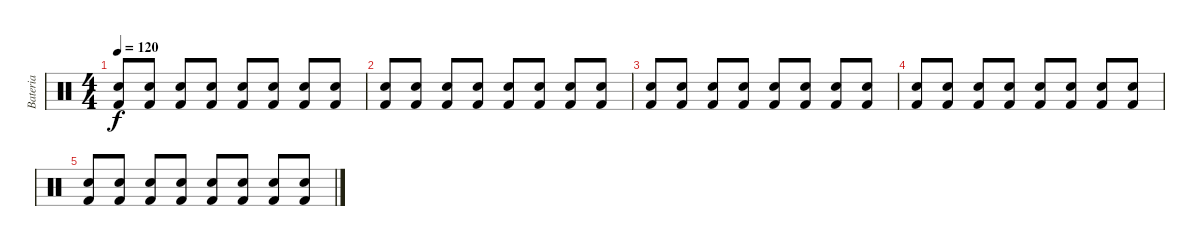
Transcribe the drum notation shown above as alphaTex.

\track ("Bateria" "Bateria") {instrument percussion}
\staff {score}
\articulation defaults
\ts (4 4)
\tempo 120
\clef neutral
\ks c
("Electric Snare (hit)" "Kick (hit) 2").8{dy f} ("Electric Snare (hit)" "Kick (hit) 2").8 ("Electric Snare (hit)" "Kick (hit) 2").8 ("Electric Snare (hit)" "Kick (hit) 2").8 ("Electric Snare (hit)" "Kick (hit) 2").8 ("Electric Snare (hit)" "Kick (hit) 2").8 ("Electric Snare (hit)" "Kick (hit) 2").8 ("Electric Snare (hit)" "Kick (hit) 2").8 |
("Electric Snare (hit)" "Kick (hit) 2").8 ("Electric Snare (hit)" "Kick (hit) 2").8 ("Electric Snare (hit)" "Kick (hit) 2").8 ("Electric Snare (hit)" "Kick (hit) 2").8 ("Electric Snare (hit)" "Kick (hit) 2").8 ("Electric Snare (hit)" "Kick (hit) 2").8 ("Electric Snare (hit)" "Kick (hit) 2").8 ("Electric Snare (hit)" "Kick (hit) 2").8 |
("Electric Snare (hit)" "Kick (hit) 2").8 ("Electric Snare (hit)" "Kick (hit) 2").8 ("Electric Snare (hit)" "Kick (hit) 2").8 ("Electric Snare (hit)" "Kick (hit) 2").8 ("Electric Snare (hit)" "Kick (hit) 2").8 ("Electric Snare (hit)" "Kick (hit) 2").8 ("Electric Snare (hit)" "Kick (hit) 2").8 ("Electric Snare (hit)" "Kick (hit) 2").8 |
("Electric Snare (hit)" "Kick (hit) 2").8 ("Electric Snare (hit)" "Kick (hit) 2").8 ("Electric Snare (hit)" "Kick (hit) 2").8 ("Electric Snare (hit)" "Kick (hit) 2").8 ("Electric Snare (hit)" "Kick (hit) 2").8 ("Electric Snare (hit)" "Kick (hit) 2").8 ("Electric Snare (hit)" "Kick (hit) 2").8 ("Electric Snare (hit)" "Kick (hit) 2").8 |
("Electric Snare (hit)" "Kick (hit) 2").8 ("Electric Snare (hit)" "Kick (hit) 2").8 ("Electric Snare (hit)" "Kick (hit) 2").8 ("Electric Snare (hit)" "Kick (hit) 2").8 ("Electric Snare (hit)" "Kick (hit) 2").8 ("Electric Snare (hit)" "Kick (hit) 2").8 ("Electric Snare (hit)" "Kick (hit) 2").8 ("Electric Snare (hit)" "Kick (hit) 2").8
